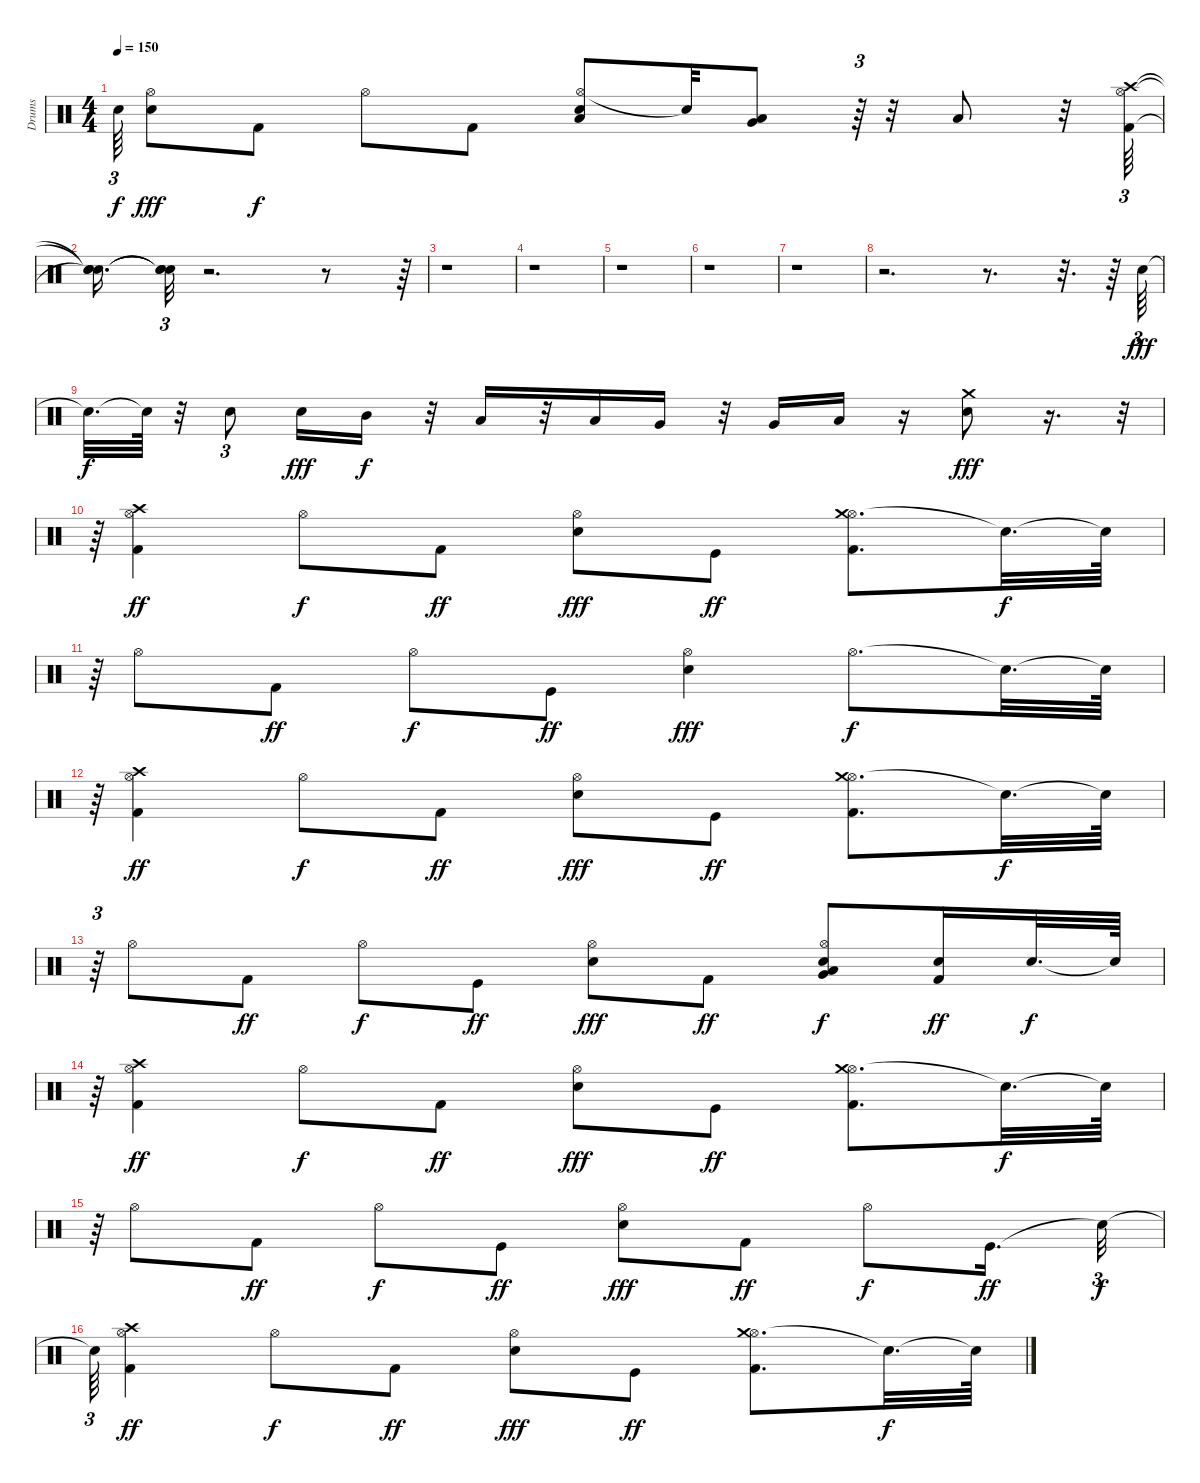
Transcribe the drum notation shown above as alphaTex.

\track ("Drums" "Drums") {instrument percussion}
\staff {score}
\articulation defaults
\ts (4 4)
\tempo 150
\clef neutral
\ks c "Snare (hit)"{t}.64{tu (3 2) dy f}
("Electric Snare (hit)" "Hi-Hat (open)").8{dy fff} "Kick (hit) 2".8{dy f} "Hi-Hat (open)".8 "Kick (hit) 2".8 ("Hi-Hat (open)" "Electric Snare (hit)" "Low Tom (hit)").8 "Snare (hit)"{t}.32 ("Low Tom (hit)" "Very Low Tom (hit)").8 r.64{tu (3 2)} r.32 "Low Floor Tom (hit)".8 r.32 ("Crash high (hit)" "Kick (hit) 2" "Hi-Hat (open)").64{tu (3 2)} |
("Snare (hit)"{t} "Snare (hit)"{t} "Snare (hit)"{t}).16{d} ("Snare (hit)"{t} "Snare (hit)"{t} "Snare (hit)"{t}).32{tu (3 2)} r.2{d} r.8 r.64{tu (3 2)} |
r.1 |
r.1 |
r.1 |
r.1 |
r.1 |
r.2{d} r.8{d} r.32{d} r.64 "Electric Snare (hit)".64{tu (3 2) dy fff} |
"Snare (hit)"{t}.32{d dy f} "Snare (hit)"{t}.64 r.32 "Electric Snare (hit)".8{tu (3 2)} "Electric Snare (hit)".16{dy fff} "Mid Tom (hit)".16{dy f} r.32 "Low Tom (hit)".16 r.32 "Low Tom (hit)".16 "Very Low Tom (hit)".16 r.32 "Very Low Tom (hit)".16 "Low Floor Tom (hit)".16 r.16 ("Crash medium (hit)" "Electric Snare (hit)").8{dy fff} r.16{d} r.32{tu (3 2)} |
r.64{tu (3 2)} ("Crash high (hit)" "Hi-Hat (open)" "Kick (hit) 2").4{dy ff} "Hi-Hat (open)".8{dy f} "Kick (hit) 2".8{dy ff} ("Hi-Hat (open)" "Electric Snare (hit)").8{dy fff} "Kick (hit)".8{dy ff} ("Hi-Hat (open)" "Crash medium (hit)" "Kick (hit) 2").8{d} "Snare (hit)"{t}.32{d dy f} "Snare (hit)"{t}.64 |
r.64{tu (3 2)} "Hi-Hat (open)".8 "Kick (hit) 2".8{dy ff} "Hi-Hat (open)".8{dy f} "Kick (hit)".8{dy ff} ("Hi-Hat (open)" "Electric Snare (hit)").4{dy fff} "Hi-Hat (open)".8{d dy f} "Snare (hit)"{t}.32{d} "Snare (hit)"{t}.64 |
r.64{tu (3 2)} ("Hi-Hat (open)" "Crash high (hit)" "Kick (hit) 2").4{dy ff} "Hi-Hat (open)".8{dy f} "Kick (hit) 2".8{dy ff} ("Hi-Hat (open)" "Electric Snare (hit)").8{dy fff} "Kick (hit)".8{dy ff} ("Hi-Hat (open)" "Crash medium (hit)" "Kick (hit) 2").8{d} "Snare (hit)"{t}.32{d dy f} "Snare (hit)"{t}.64 |
r.64{tu (3 2)} "Hi-Hat (open)".8 "Kick (hit) 2".8{dy ff} "Hi-Hat (open)".8{dy f} "Kick (hit)".8{dy ff} ("Hi-Hat (open)" "Electric Snare (hit)").8{dy fff} "Kick (hit) 2".8{dy ff} ("Hi-Hat (open)" "Electric Snare (hit)" "Low Tom (hit)" "Very Low Tom (hit)").8{dy f} ("Kick (hit) 2" "Electric Snare (hit)").16{dy ff} "Electric Snare (hit)".32{d dy f} "Snare (hit)"{t}.64 |
r.64{tu (3 2)} ("Hi-Hat (open)" "Crash high (hit)" "Kick (hit) 2").4{dy ff} "Hi-Hat (open)".8{dy f} "Kick (hit) 2".8{dy ff} ("Hi-Hat (open)" "Electric Snare (hit)").8{dy fff} "Kick (hit)".8{dy ff} ("Hi-Hat (open)" "Crash medium (hit)" "Kick (hit) 2").8{d} "Snare (hit)"{t}.32{d dy f} "Snare (hit)"{t}.64 |
r.64{tu (3 2)} "Hi-Hat (open)".8 "Kick (hit) 2".8{dy ff} "Hi-Hat (open)".8{dy f} "Kick (hit)".8{dy ff} ("Hi-Hat (open)" "Electric Snare (hit)").8{dy fff} "Kick (hit) 2".8{dy ff} "Hi-Hat (open)".8{dy f} "Kick (hit)".16{d dy ff} "Snare (hit)"{t}.32{tu (3 2) dy f} |
"Snare (hit)"{t}.64{tu (3 2)} ("Hi-Hat (open)" "Crash high (hit)" "Kick (hit) 2").4{dy ff} "Hi-Hat (open)".8{dy f} "Kick (hit) 2".8{dy ff} ("Hi-Hat (open)" "Electric Snare (hit)").8{dy fff} "Kick (hit)".8{dy ff} ("Hi-Hat (open)" "Crash medium (hit)" "Kick (hit) 2").8{d} "Snare (hit)"{t}.32{d dy f} "Snare (hit)"{t}.64
